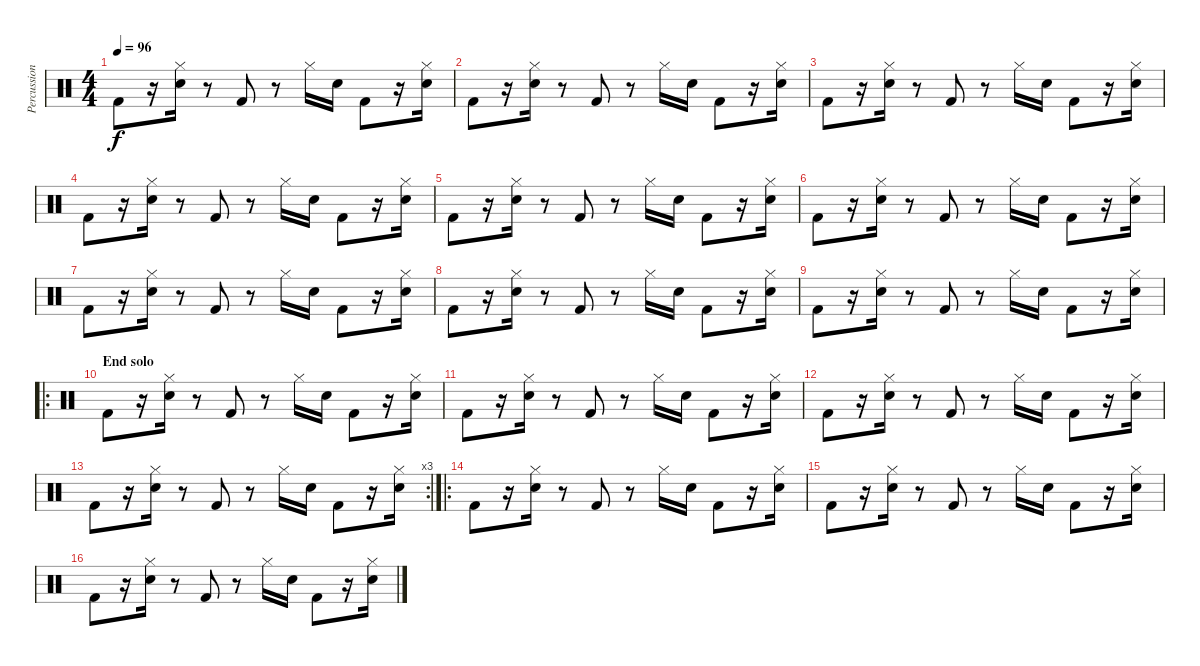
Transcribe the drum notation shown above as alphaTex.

\track ("Percussion" "Percussion") {instrument percussion}
\staff {score}
\articulation defaults
\ts (4 4)
\tempo 96
\clef neutral
\ks c "Kick (hit) 2".8{dy f}
r.16 ("Hi-Hat (closed)" "Snare (hit) 2").16 r.8 "Kick (hit) 2".8 r.8 "Hi-Hat (closed)".16 "Snare (hit) 2".16 "Kick (hit) 2".8 r.16 ("Hi-Hat (closed)" "Snare (hit) 2").16 |
"Kick (hit) 2".8 r.16 ("Hi-Hat (closed)" "Snare (hit) 2").16 r.8 "Kick (hit) 2".8 r.8 "Hi-Hat (closed)".16 "Snare (hit) 2".16 "Kick (hit) 2".8 r.16 ("Hi-Hat (closed)" "Snare (hit) 2").16 |
"Kick (hit) 2".8 r.16 ("Hi-Hat (closed)" "Snare (hit) 2").16 r.8 "Kick (hit) 2".8 r.8 "Hi-Hat (closed)".16 "Snare (hit) 2".16 "Kick (hit) 2".8 r.16 ("Hi-Hat (closed)" "Snare (hit) 2").16 |
"Kick (hit) 2".8 r.16 ("Hi-Hat (closed)" "Snare (hit) 2").16 r.8 "Kick (hit) 2".8 r.8 "Hi-Hat (closed)".16 "Snare (hit) 2".16 "Kick (hit) 2".8 r.16 ("Hi-Hat (closed)" "Snare (hit) 2").16 |
"Kick (hit) 2".8 r.16 ("Hi-Hat (closed)" "Snare (hit) 2").16 r.8 "Kick (hit) 2".8 r.8 "Hi-Hat (closed)".16 "Snare (hit) 2".16 "Kick (hit) 2".8 r.16 ("Hi-Hat (closed)" "Snare (hit) 2").16 |
"Kick (hit) 2".8 r.16 ("Hi-Hat (closed)" "Snare (hit) 2").16 r.8 "Kick (hit) 2".8 r.8 "Hi-Hat (closed)".16 "Snare (hit) 2".16 "Kick (hit) 2".8 r.16 ("Hi-Hat (closed)" "Snare (hit) 2").16 |
"Kick (hit) 2".8 r.16 ("Hi-Hat (closed)" "Snare (hit) 2").16 r.8 "Kick (hit) 2".8 r.8 "Hi-Hat (closed)".16 "Snare (hit) 2".16 "Kick (hit) 2".8 r.16 ("Hi-Hat (closed)" "Snare (hit) 2").16 |
"Kick (hit) 2".8 r.16 ("Hi-Hat (closed)" "Snare (hit) 2").16 r.8 "Kick (hit) 2".8 r.8 "Hi-Hat (closed)".16 "Snare (hit) 2".16 "Kick (hit) 2".8 r.16 ("Hi-Hat (closed)" "Snare (hit) 2").16 |
"Kick (hit) 2".8 r.16 ("Hi-Hat (closed)" "Snare (hit) 2").16 r.8 "Kick (hit) 2".8 r.8 "Hi-Hat (closed)".16 "Snare (hit) 2".16 "Kick (hit) 2".8 r.16 ("Hi-Hat (closed)" "Snare (hit) 2").16 |
\ro
\section ("" "End solo")
"Kick (hit) 2".8 r.16 ("Hi-Hat (closed)" "Snare (hit) 2").16 r.8 "Kick (hit) 2".8 r.8 "Hi-Hat (closed)".16 "Snare (hit) 2".16 "Kick (hit) 2".8 r.16 ("Hi-Hat (closed)" "Snare (hit) 2").16 |
"Kick (hit) 2".8 r.16 ("Hi-Hat (closed)" "Snare (hit) 2").16 r.8 "Kick (hit) 2".8 r.8 "Hi-Hat (closed)".16 "Snare (hit) 2".16 "Kick (hit) 2".8 r.16 ("Hi-Hat (closed)" "Snare (hit) 2").16 |
"Kick (hit) 2".8 r.16 ("Hi-Hat (closed)" "Snare (hit) 2").16 r.8 "Kick (hit) 2".8 r.8 "Hi-Hat (closed)".16 "Snare (hit) 2".16 "Kick (hit) 2".8 r.16 ("Hi-Hat (closed)" "Snare (hit) 2").16 |
\rc 3 "Kick (hit) 2".8
r.16 ("Hi-Hat (closed)" "Snare (hit) 2").16 r.8 "Kick (hit) 2".8 r.8 "Hi-Hat (closed)".16 "Snare (hit) 2".16 "Kick (hit) 2".8 r.16 ("Hi-Hat (closed)" "Snare (hit) 2").16 |
\ro "Kick (hit) 2".8
r.16 ("Hi-Hat (closed)" "Snare (hit) 2").16 r.8 "Kick (hit) 2".8 r.8 "Hi-Hat (closed)".16 "Snare (hit) 2".16 "Kick (hit) 2".8 r.16 ("Hi-Hat (closed)" "Snare (hit) 2").16 |
"Kick (hit) 2".8 r.16 ("Hi-Hat (closed)" "Snare (hit) 2").16 r.8 "Kick (hit) 2".8 r.8 "Hi-Hat (closed)".16 "Snare (hit) 2".16 "Kick (hit) 2".8 r.16 ("Hi-Hat (closed)" "Snare (hit) 2").16 |
"Kick (hit) 2".8 r.16 ("Hi-Hat (closed)" "Snare (hit) 2").16 r.8 "Kick (hit) 2".8 r.8 "Hi-Hat (closed)".16 "Snare (hit) 2".16 "Kick (hit) 2".8 r.16 ("Hi-Hat (closed)" "Snare (hit) 2").16
